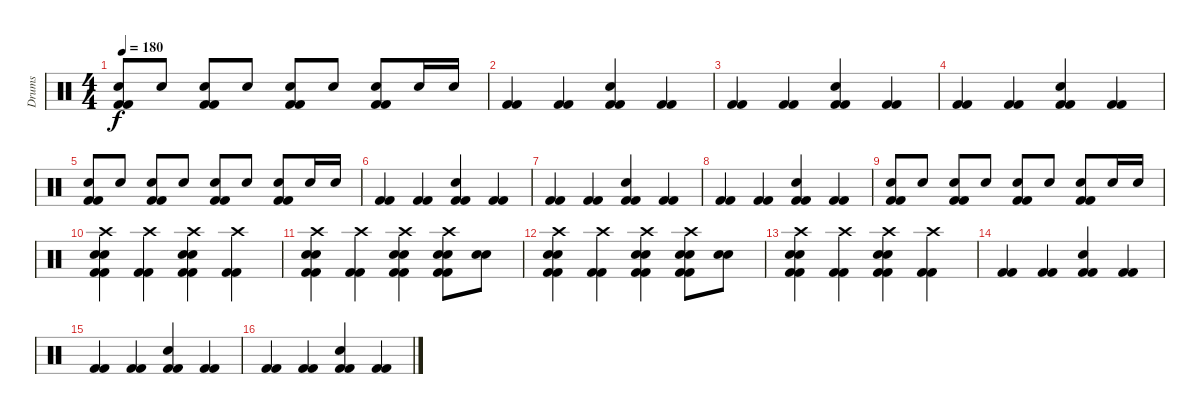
\track ("Drums" "Drums") {instrument percussion}
\staff {score}
\articulation defaults
\ts (4 4)
\tempo 180
\clef neutral
\ks c
("Snare (hit) 2" "Kick (hit) 2" "Kick (hit) 2").8{dy f} "Snare (hit) 2".8 ("Snare (hit) 2" "Kick (hit) 2" "Kick (hit) 2").8 "Snare (hit) 2".8 ("Snare (hit) 2" "Kick (hit) 2" "Kick (hit) 2").8 "Snare (hit) 2".8 ("Snare (hit) 2" "Kick (hit) 2" "Kick (hit) 2").8 "Snare (hit) 2".16 "Snare (hit) 2".16 |
("Kick (hit) 2" "Kick (hit) 2").4 ("Kick (hit) 2" "Kick (hit) 2").4 ("Snare (hit) 2" "Kick (hit) 2" "Kick (hit) 2").4 ("Kick (hit) 2" "Kick (hit) 2").4 |
("Kick (hit) 2" "Kick (hit) 2").4 ("Kick (hit) 2" "Kick (hit) 2").4 ("Snare (hit) 2" "Kick (hit) 2" "Kick (hit) 2").4 ("Kick (hit) 2" "Kick (hit) 2").4 |
("Kick (hit) 2" "Kick (hit) 2").4 ("Kick (hit) 2" "Kick (hit) 2").4 ("Snare (hit) 2" "Kick (hit) 2" "Kick (hit) 2").4 ("Kick (hit) 2" "Kick (hit) 2").4 |
("Snare (hit) 2" "Kick (hit) 2" "Kick (hit) 2").8 "Snare (hit) 2".8 ("Snare (hit) 2" "Kick (hit) 2" "Kick (hit) 2").8 "Snare (hit) 2".8 ("Snare (hit) 2" "Kick (hit) 2" "Kick (hit) 2").8 "Snare (hit) 2".8 ("Snare (hit) 2" "Kick (hit) 2" "Kick (hit) 2").8 "Snare (hit) 2".16 "Snare (hit) 2".16 |
("Kick (hit) 2" "Kick (hit) 2").4 ("Kick (hit) 2" "Kick (hit) 2").4 ("Snare (hit) 2" "Kick (hit) 2" "Kick (hit) 2").4 ("Kick (hit) 2" "Kick (hit) 2").4 |
("Kick (hit) 2" "Kick (hit) 2").4 ("Kick (hit) 2" "Kick (hit) 2").4 ("Snare (hit) 2" "Kick (hit) 2" "Kick (hit) 2").4 ("Kick (hit) 2" "Kick (hit) 2").4 |
("Kick (hit) 2" "Kick (hit) 2").4 ("Kick (hit) 2" "Kick (hit) 2").4 ("Snare (hit) 2" "Kick (hit) 2" "Kick (hit) 2").4 ("Kick (hit) 2" "Kick (hit) 2").4 |
("Snare (hit) 2" "Kick (hit) 2" "Kick (hit) 2").8 "Snare (hit) 2".8 ("Snare (hit) 2" "Kick (hit) 2" "Kick (hit) 2").8 "Snare (hit) 2".8 ("Snare (hit) 2" "Kick (hit) 2" "Kick (hit) 2").8 "Snare (hit) 2".8 ("Snare (hit) 2" "Kick (hit) 2" "Kick (hit) 2").8 "Snare (hit) 2".16 "Snare (hit) 2".16 |
("Crash high (hit)" "Snare (hit) 2" "Snare (hit) 2" "Kick (hit) 2" "Kick (hit) 2").4 ("Crash high (hit)" "Kick (hit) 2" "Kick (hit) 2").4 ("Crash high (hit)" "Snare (hit) 2" "Snare (hit) 2" "Kick (hit) 2" "Kick (hit) 2").4 ("Crash high (hit)" "Kick (hit) 2" "Kick (hit) 2").4 |
("Crash high (hit)" "Snare (hit) 2" "Snare (hit) 2" "Kick (hit) 2" "Kick (hit) 2").4 ("Crash high (hit)" "Kick (hit) 2" "Kick (hit) 2").4 ("Crash high (hit)" "Snare (hit) 2" "Snare (hit) 2" "Kick (hit) 2" "Kick (hit) 2").4 ("Crash high (hit)" "Snare (hit) 2" "Snare (hit) 2" "Kick (hit) 2" "Kick (hit) 2").8 ("Snare (hit) 2" "Snare (hit) 2").8 |
("Crash high (hit)" "Snare (hit) 2" "Snare (hit) 2" "Kick (hit) 2" "Kick (hit) 2").4 ("Crash high (hit)" "Kick (hit) 2" "Kick (hit) 2").4 ("Crash high (hit)" "Snare (hit) 2" "Snare (hit) 2" "Kick (hit) 2" "Kick (hit) 2").4 ("Crash high (hit)" "Snare (hit) 2" "Snare (hit) 2" "Kick (hit) 2" "Kick (hit) 2").8 ("Snare (hit) 2" "Snare (hit) 2").8 |
("Crash high (hit)" "Snare (hit) 2" "Snare (hit) 2" "Kick (hit) 2" "Kick (hit) 2").4 ("Crash high (hit)" "Kick (hit) 2" "Kick (hit) 2").4 ("Crash high (hit)" "Snare (hit) 2" "Snare (hit) 2" "Kick (hit) 2" "Kick (hit) 2").4 ("Crash high (hit)" "Kick (hit) 2" "Kick (hit) 2").4 |
("Kick (hit) 2" "Kick (hit) 2").4 ("Kick (hit) 2" "Kick (hit) 2").4 ("Snare (hit) 2" "Kick (hit) 2" "Kick (hit) 2").4 ("Kick (hit) 2" "Kick (hit) 2").4 |
("Kick (hit) 2" "Kick (hit) 2").4 ("Kick (hit) 2" "Kick (hit) 2").4 ("Snare (hit) 2" "Kick (hit) 2" "Kick (hit) 2").4 ("Kick (hit) 2" "Kick (hit) 2").4 |
("Kick (hit) 2" "Kick (hit) 2").4 ("Kick (hit) 2" "Kick (hit) 2").4 ("Snare (hit) 2" "Kick (hit) 2" "Kick (hit) 2").4 ("Kick (hit) 2" "Kick (hit) 2").4
